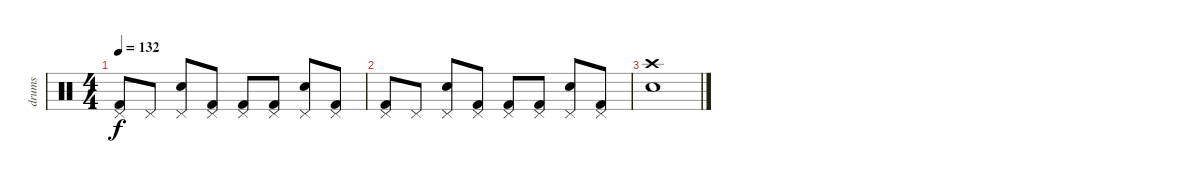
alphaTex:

\track ("drums" "drums") {instrument percussion}
\staff {score}
\articulation defaults
\ts (4 4)
\tempo 132
\clef neutral
\ks c
("Kick (hit) 2" "Pedal Hi-Hat (hit)").8{dy f} "Pedal Hi-Hat (hit)".8 ("Electric Snare (hit)" "Pedal Hi-Hat (hit)").8 ("Kick (hit) 2" "Pedal Hi-Hat (hit)").8 ("Kick (hit) 2" "Pedal Hi-Hat (hit)").8 ("Kick (hit) 2" "Pedal Hi-Hat (hit)").8 ("Electric Snare (hit)" "Pedal Hi-Hat (hit)").8 ("Kick (hit) 2" "Pedal Hi-Hat (hit)").8 |
("Kick (hit) 2" "Pedal Hi-Hat (hit)").8 "Pedal Hi-Hat (hit)".8 ("Electric Snare (hit)" "Pedal Hi-Hat (hit)").8 ("Kick (hit) 2" "Pedal Hi-Hat (hit)").8 ("Kick (hit) 2" "Pedal Hi-Hat (hit)").8 ("Kick (hit) 2" "Pedal Hi-Hat (hit)").8 ("Electric Snare (hit)" "Pedal Hi-Hat (hit)").8 ("Kick (hit) 2" "Pedal Hi-Hat (hit)").8 |
("Electric Snare (hit)" "Crash high (hit)").1
